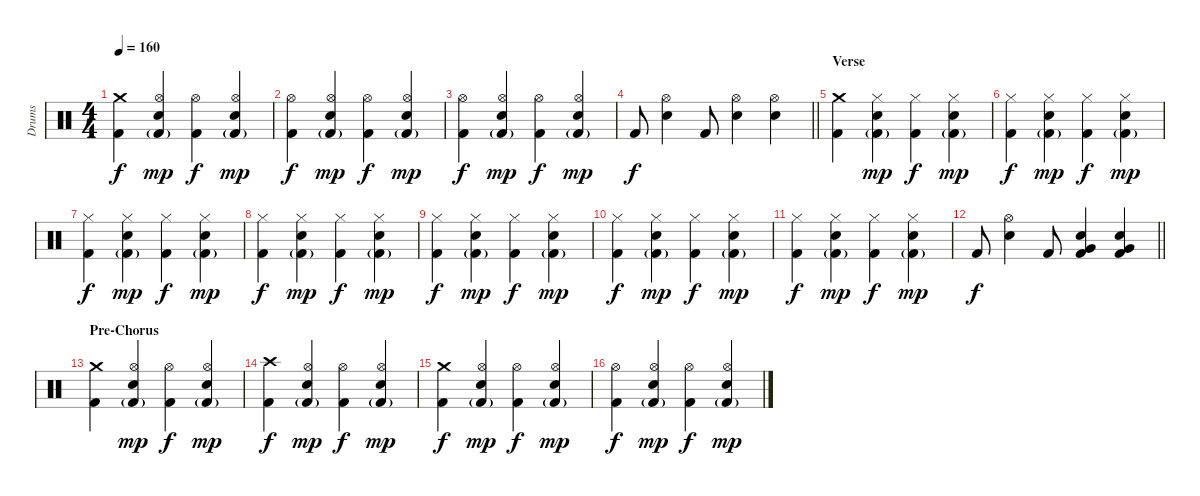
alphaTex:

\track ("Drums" "Drums") {instrument percussion}
\staff {score}
\articulation defaults
\ts (4 4)
\tempo 160
\clef neutral
\ks c
("Crash medium (hit)" "Kick (hit) 2").4{dy f} ("Hi-Hat (open)" "Electric Snare (hit)" "Kick (hit) 2"{g}).4{dy mp} ("Hi-Hat (open)" "Kick (hit) 2").4{dy f} ("Hi-Hat (open)" "Electric Snare (hit)" "Kick (hit) 2"{g}).4{dy mp} |
("Hi-Hat (open)" "Kick (hit) 2").4{dy f} ("Hi-Hat (open)" "Electric Snare (hit)" "Kick (hit) 2"{g}).4{dy mp} ("Hi-Hat (open)" "Kick (hit) 2").4{dy f} ("Hi-Hat (open)" "Electric Snare (hit)" "Kick (hit) 2"{g}).4{dy mp} |
("Hi-Hat (open)" "Kick (hit) 2").4{dy f} ("Hi-Hat (open)" "Electric Snare (hit)" "Kick (hit) 2"{g}).4{dy mp} ("Hi-Hat (open)" "Kick (hit) 2").4{dy f} ("Hi-Hat (open)" "Electric Snare (hit)" "Kick (hit) 2"{g}).4{dy mp} |
\barLineRight lightlight "Kick (hit) 2".8{dy f}
("Hi-Hat (open)" "Electric Snare (hit)").4 "Kick (hit) 2".8 ("Hi-Hat (open)" "Electric Snare (hit)").4 ("Hi-Hat (open)" "Electric Snare (hit)").4 |
\section ("" "Verse ")
("Crash medium (hit)" "Kick (hit) 2").4 ("Hi-Hat (closed)" "Electric Snare (hit)" "Kick (hit) 2"{g}).4{dy mp} ("Hi-Hat (closed)" "Kick (hit) 2").4{dy f} ("Hi-Hat (closed)" "Electric Snare (hit)" "Kick (hit) 2"{g}).4{dy mp} |
("Hi-Hat (closed)" "Kick (hit) 2").4{dy f} ("Hi-Hat (closed)" "Electric Snare (hit)" "Kick (hit) 2"{g}).4{dy mp} ("Hi-Hat (closed)" "Kick (hit) 2").4{dy f} ("Hi-Hat (closed)" "Electric Snare (hit)" "Kick (hit) 2"{g}).4{dy mp} |
("Hi-Hat (closed)" "Kick (hit) 2").4{dy f} ("Hi-Hat (closed)" "Electric Snare (hit)" "Kick (hit) 2"{g}).4{dy mp} ("Hi-Hat (closed)" "Kick (hit) 2").4{dy f} ("Hi-Hat (closed)" "Electric Snare (hit)" "Kick (hit) 2"{g}).4{dy mp} |
("Hi-Hat (closed)" "Kick (hit) 2").4{dy f} ("Hi-Hat (closed)" "Electric Snare (hit)" "Kick (hit) 2"{g}).4{dy mp} ("Hi-Hat (closed)" "Kick (hit) 2").4{dy f} ("Hi-Hat (closed)" "Electric Snare (hit)" "Kick (hit) 2"{g}).4{dy mp} |
("Hi-Hat (closed)" "Kick (hit) 2").4{dy f} ("Hi-Hat (closed)" "Electric Snare (hit)" "Kick (hit) 2"{g}).4{dy mp} ("Hi-Hat (closed)" "Kick (hit) 2").4{dy f} ("Hi-Hat (closed)" "Electric Snare (hit)" "Kick (hit) 2"{g}).4{dy mp} |
("Hi-Hat (closed)" "Kick (hit) 2").4{dy f} ("Hi-Hat (closed)" "Electric Snare (hit)" "Kick (hit) 2"{g}).4{dy mp} ("Hi-Hat (closed)" "Kick (hit) 2").4{dy f} ("Hi-Hat (closed)" "Electric Snare (hit)" "Kick (hit) 2"{g}).4{dy mp} |
("Hi-Hat (closed)" "Kick (hit) 2").4{dy f} ("Hi-Hat (closed)" "Electric Snare (hit)" "Kick (hit) 2"{g}).4{dy mp} ("Hi-Hat (closed)" "Kick (hit) 2").4{dy f} ("Hi-Hat (closed)" "Electric Snare (hit)" "Kick (hit) 2"{g}).4{dy mp} |
\barLineRight lightlight "Kick (hit) 2".8{dy f}
("Hi-Hat (open)" "Electric Snare (hit)").4 "Kick (hit) 2".8 ("Electric Snare (hit)" "Very Low Tom (hit)" "Kick (hit) 2").4 ("Electric Snare (hit)" "Very Low Tom (hit)" "Kick (hit) 2").4 |
\section ("" "Pre-Chorus")
("Crash medium (hit)" "Kick (hit) 2").4 ("Hi-Hat (open)" "Electric Snare (hit)" "Kick (hit) 2"{g}).4{dy mp} ("Hi-Hat (open)" "Kick (hit) 2").4{dy f} ("Hi-Hat (open)" "Electric Snare (hit)" "Kick (hit) 2"{g}).4{dy mp} |
("Crash high (hit)" "Kick (hit) 2").4{dy f} ("Hi-Hat (open)" "Electric Snare (hit)" "Kick (hit) 2"{g}).4{dy mp} ("Hi-Hat (open)" "Kick (hit) 2").4{dy f} ("Hi-Hat (open)" "Electric Snare (hit)" "Kick (hit) 2"{g}).4{dy mp} |
("Crash medium (hit)" "Kick (hit) 2").4{dy f} ("Hi-Hat (open)" "Electric Snare (hit)" "Kick (hit) 2"{g}).4{dy mp} ("Hi-Hat (open)" "Kick (hit) 2").4{dy f} ("Hi-Hat (open)" "Electric Snare (hit)" "Kick (hit) 2"{g}).4{dy mp} |
("Hi-Hat (open)" "Kick (hit) 2").4{dy f} ("Hi-Hat (open)" "Electric Snare (hit)" "Kick (hit) 2"{g}).4{dy mp} ("Hi-Hat (open)" "Kick (hit) 2").4{dy f} ("Hi-Hat (open)" "Electric Snare (hit)" "Kick (hit) 2"{g}).4{dy mp}
